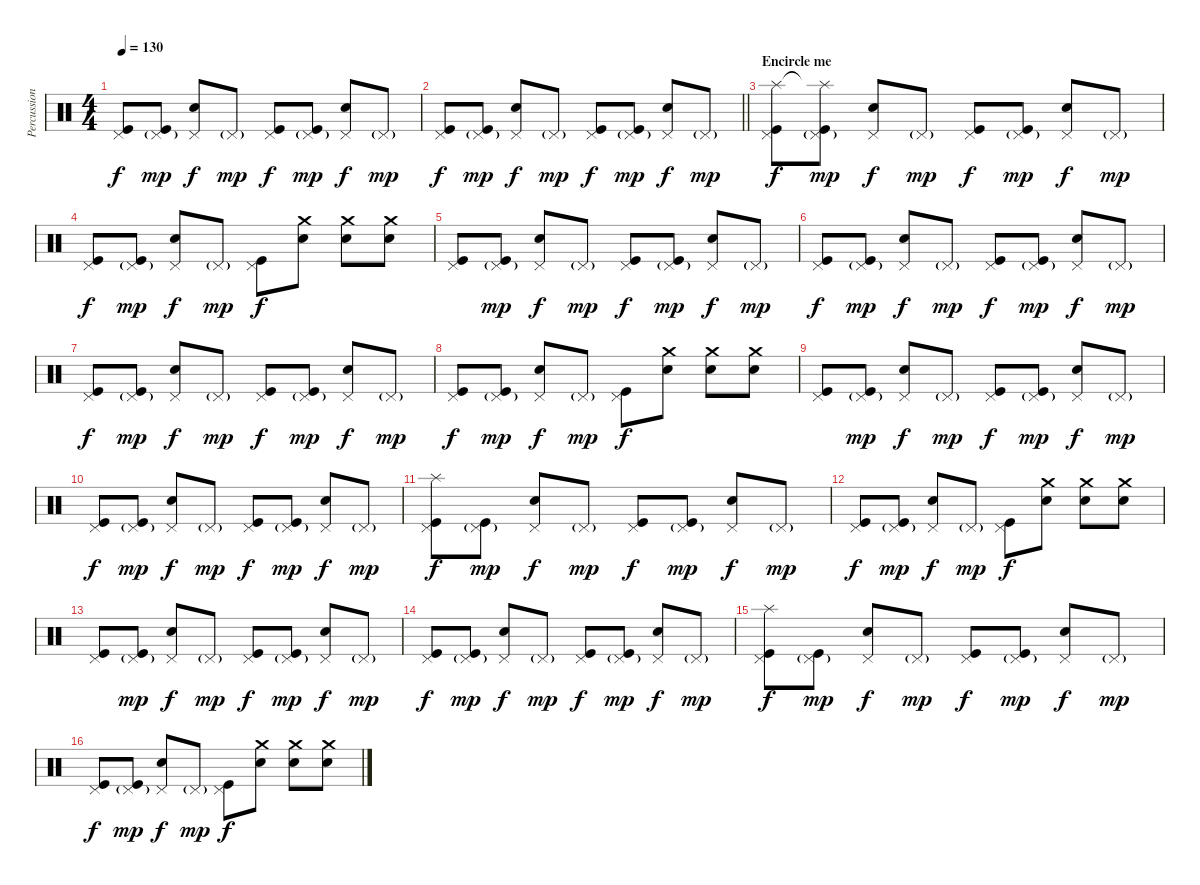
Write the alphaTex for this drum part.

\track ("Percussion" "Percussion") {instrument percussion}
\staff {score}
\articulation defaults
\ts (4 4)
\tempo 130
\clef neutral
\ks c
("Pedal Hi-Hat (hit)" "Kick (hit)").8{dy f} ("Pedal Hi-Hat (hit)"{g} "Kick (hit)").8{dy mp} ("Pedal Hi-Hat (hit)" "Snare (hit) 2").8{dy f} "Pedal Hi-Hat (hit)"{g}.8{dy mp} ("Pedal Hi-Hat (hit)" "Kick (hit)").8{dy f} ("Pedal Hi-Hat (hit)"{g} "Kick (hit)").8{dy mp} ("Pedal Hi-Hat (hit)" "Snare (hit) 2").8{dy f} "Pedal Hi-Hat (hit)"{g}.8{dy mp} |
\barLineRight lightlight
("Pedal Hi-Hat (hit)" "Kick (hit)").8{dy f} ("Pedal Hi-Hat (hit)"{g} "Kick (hit)").8{dy mp} ("Pedal Hi-Hat (hit)" "Snare (hit) 2").8{dy f} "Pedal Hi-Hat (hit)"{g}.8{dy mp} ("Pedal Hi-Hat (hit)" "Kick (hit)").8{dy f} ("Pedal Hi-Hat (hit)"{g} "Kick (hit)").8{dy mp} ("Pedal Hi-Hat (hit)" "Snare (hit) 2").8{dy f} "Pedal Hi-Hat (hit)"{g}.8{dy mp} |
\section ("" "Encircle me")
("Splash (hit)" "Pedal Hi-Hat (hit)" "Kick (hit)").8{dy f} ("Splash (hit)"{t} "Pedal Hi-Hat (hit)"{g} "Kick (hit)").8{dy mp} ("Pedal Hi-Hat (hit)" "Snare (hit) 2").8{dy f} "Pedal Hi-Hat (hit)"{g}.8{dy mp} ("Pedal Hi-Hat (hit)" "Kick (hit)").8{dy f} ("Pedal Hi-Hat (hit)"{g} "Kick (hit)").8{dy mp} ("Pedal Hi-Hat (hit)" "Snare (hit) 2").8{dy f} "Pedal Hi-Hat (hit)"{g}.8{dy mp} |
("Pedal Hi-Hat (hit)" "Kick (hit)").8{dy f} ("Pedal Hi-Hat (hit)"{g} "Kick (hit)").8{dy mp} ("Pedal Hi-Hat (hit)" "Snare (hit) 2").8{dy f} "Pedal Hi-Hat (hit)"{g}.8{dy mp} ("Pedal Hi-Hat (hit)" "Kick (hit)").8{dy f} ("Crash medium (hit)" "Snare (hit) 2").8 ("Crash medium (hit)" "Snare (hit) 2").8 ("Crash medium (hit)" "Snare (hit) 2").8 |
("Pedal Hi-Hat (hit)" "Kick (hit)").8 ("Pedal Hi-Hat (hit)"{g} "Kick (hit)").8{dy mp} ("Pedal Hi-Hat (hit)" "Snare (hit) 2").8{dy f} "Pedal Hi-Hat (hit)"{g}.8{dy mp} ("Pedal Hi-Hat (hit)" "Kick (hit)").8{dy f} ("Pedal Hi-Hat (hit)"{g} "Kick (hit)").8{dy mp} ("Pedal Hi-Hat (hit)" "Snare (hit) 2").8{dy f} "Pedal Hi-Hat (hit)"{g}.8{dy mp} |
("Pedal Hi-Hat (hit)" "Kick (hit)").8{dy f} ("Pedal Hi-Hat (hit)"{g} "Kick (hit)").8{dy mp} ("Pedal Hi-Hat (hit)" "Snare (hit) 2").8{dy f} "Pedal Hi-Hat (hit)"{g}.8{dy mp} ("Pedal Hi-Hat (hit)" "Kick (hit)").8{dy f} ("Pedal Hi-Hat (hit)"{g} "Kick (hit)").8{dy mp} ("Pedal Hi-Hat (hit)" "Snare (hit) 2").8{dy f} "Pedal Hi-Hat (hit)"{g}.8{dy mp} |
("Pedal Hi-Hat (hit)" "Kick (hit)").8{dy f} ("Pedal Hi-Hat (hit)"{g} "Kick (hit)").8{dy mp} ("Pedal Hi-Hat (hit)" "Snare (hit) 2").8{dy f} "Pedal Hi-Hat (hit)"{g}.8{dy mp} ("Pedal Hi-Hat (hit)" "Kick (hit)").8{dy f} ("Pedal Hi-Hat (hit)"{g} "Kick (hit)").8{dy mp} ("Pedal Hi-Hat (hit)" "Snare (hit) 2").8{dy f} "Pedal Hi-Hat (hit)"{g}.8{dy mp} |
("Pedal Hi-Hat (hit)" "Kick (hit)").8{dy f} ("Pedal Hi-Hat (hit)"{g} "Kick (hit)").8{dy mp} ("Pedal Hi-Hat (hit)" "Snare (hit) 2").8{dy f} "Pedal Hi-Hat (hit)"{g}.8{dy mp} ("Pedal Hi-Hat (hit)" "Kick (hit)").8{dy f} ("Crash medium (hit)" "Snare (hit) 2").8 ("Crash medium (hit)" "Snare (hit) 2").8 ("Crash medium (hit)" "Snare (hit) 2").8 |
("Pedal Hi-Hat (hit)" "Kick (hit)").8 ("Pedal Hi-Hat (hit)"{g} "Kick (hit)").8{dy mp} ("Pedal Hi-Hat (hit)" "Snare (hit) 2").8{dy f} "Pedal Hi-Hat (hit)"{g}.8{dy mp} ("Pedal Hi-Hat (hit)" "Kick (hit)").8{dy f} ("Pedal Hi-Hat (hit)"{g} "Kick (hit)").8{dy mp} ("Pedal Hi-Hat (hit)" "Snare (hit) 2").8{dy f} "Pedal Hi-Hat (hit)"{g}.8{dy mp} |
("Pedal Hi-Hat (hit)" "Kick (hit)").8{dy f} ("Pedal Hi-Hat (hit)"{g} "Kick (hit)").8{dy mp} ("Pedal Hi-Hat (hit)" "Snare (hit) 2").8{dy f} "Pedal Hi-Hat (hit)"{g}.8{dy mp} ("Pedal Hi-Hat (hit)" "Kick (hit)").8{dy f} ("Pedal Hi-Hat (hit)"{g} "Kick (hit)").8{dy mp} ("Pedal Hi-Hat (hit)" "Snare (hit) 2").8{dy f} "Pedal Hi-Hat (hit)"{g}.8{dy mp} |
("Splash (hit)" "Pedal Hi-Hat (hit)" "Kick (hit)").8{dy f} ("Pedal Hi-Hat (hit)"{g} "Kick (hit)").8{dy mp} ("Pedal Hi-Hat (hit)" "Snare (hit) 2").8{dy f} "Pedal Hi-Hat (hit)"{g}.8{dy mp} ("Pedal Hi-Hat (hit)" "Kick (hit)").8{dy f} ("Pedal Hi-Hat (hit)"{g} "Kick (hit)").8{dy mp} ("Pedal Hi-Hat (hit)" "Snare (hit) 2").8{dy f} "Pedal Hi-Hat (hit)"{g}.8{dy mp} |
("Pedal Hi-Hat (hit)" "Kick (hit)").8{dy f} ("Pedal Hi-Hat (hit)"{g} "Kick (hit)").8{dy mp} ("Pedal Hi-Hat (hit)" "Snare (hit) 2").8{dy f} "Pedal Hi-Hat (hit)"{g}.8{dy mp} ("Pedal Hi-Hat (hit)" "Kick (hit)").8{dy f} ("Crash medium (hit)" "Snare (hit) 2").8 ("Crash medium (hit)" "Snare (hit) 2").8 ("Crash medium (hit)" "Snare (hit) 2").8 |
("Pedal Hi-Hat (hit)" "Kick (hit)").8 ("Pedal Hi-Hat (hit)"{g} "Kick (hit)").8{dy mp} ("Pedal Hi-Hat (hit)" "Snare (hit) 2").8{dy f} "Pedal Hi-Hat (hit)"{g}.8{dy mp} ("Pedal Hi-Hat (hit)" "Kick (hit)").8{dy f} ("Pedal Hi-Hat (hit)"{g} "Kick (hit)").8{dy mp} ("Pedal Hi-Hat (hit)" "Snare (hit) 2").8{dy f} "Pedal Hi-Hat (hit)"{g}.8{dy mp} |
("Pedal Hi-Hat (hit)" "Kick (hit)").8{dy f} ("Pedal Hi-Hat (hit)"{g} "Kick (hit)").8{dy mp} ("Pedal Hi-Hat (hit)" "Snare (hit) 2").8{dy f} "Pedal Hi-Hat (hit)"{g}.8{dy mp} ("Pedal Hi-Hat (hit)" "Kick (hit)").8{dy f} ("Pedal Hi-Hat (hit)"{g} "Kick (hit)").8{dy mp} ("Pedal Hi-Hat (hit)" "Snare (hit) 2").8{dy f} "Pedal Hi-Hat (hit)"{g}.8{dy mp} |
("Splash (hit)" "Pedal Hi-Hat (hit)" "Kick (hit)").8{dy f} ("Pedal Hi-Hat (hit)"{g} "Kick (hit)").8{dy mp} ("Pedal Hi-Hat (hit)" "Snare (hit) 2").8{dy f} "Pedal Hi-Hat (hit)"{g}.8{dy mp} ("Pedal Hi-Hat (hit)" "Kick (hit)").8{dy f} ("Pedal Hi-Hat (hit)"{g} "Kick (hit)").8{dy mp} ("Pedal Hi-Hat (hit)" "Snare (hit) 2").8{dy f} "Pedal Hi-Hat (hit)"{g}.8{dy mp} |
("Pedal Hi-Hat (hit)" "Kick (hit)").8{dy f} ("Pedal Hi-Hat (hit)"{g} "Kick (hit)").8{dy mp} ("Pedal Hi-Hat (hit)" "Snare (hit) 2").8{dy f} "Pedal Hi-Hat (hit)"{g}.8{dy mp} ("Pedal Hi-Hat (hit)" "Kick (hit)").8{dy f} ("Crash medium (hit)" "Snare (hit) 2").8 ("Crash medium (hit)" "Snare (hit) 2").8 ("Crash medium (hit)" "Snare (hit) 2").8
